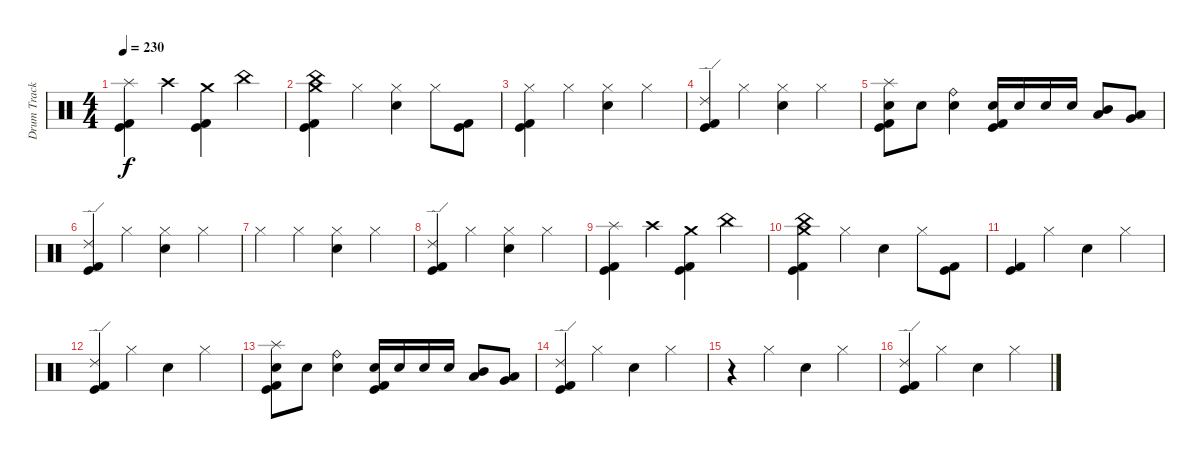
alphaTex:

\track ("Drum Track" "Drum Track") {instrument percussion}
\staff {score}
\articulation defaults
\ts (4 4)
\tempo 230
\clef neutral
\ks c
("Splash (hit)" "Kick (hit) 2" "Kick (hit)").4{dy f} "Crash high (hit)".4 ("Crash medium (hit)" "Kick (hit) 2" "Kick (hit)").4 "China (hit)".4 |
("China (hit)" "Crash medium (hit)" "Kick (hit) 2" "Kick (hit)").4 "Hi-Hat (closed)".4 ("Hi-Hat (closed)" "Electric Snare (hit)").4 "Hi-Hat (closed)".8 ("Kick (hit) 2" "Kick (hit)").8 |
("Hi-Hat (closed)" "Kick (hit) 2" "Kick (hit)").4 "Hi-Hat (closed)".4 ("Hi-Hat (closed)" "Electric Snare (hit)").4 "Hi-Hat (closed)".4 |
("Ride (edge) 2" "Kick (hit) 2" "Kick (hit)").4 "Hi-Hat (closed)".4 ("Hi-Hat (closed)" "Electric Snare (hit)").4 "Hi-Hat (closed)".4 |
("Splash (hit)" "Electric Snare (hit)" "Kick (hit) 2" "Kick (hit)").8 "Electric Snare (hit)".8 ("Ride (bell)" "Electric Snare (hit)").4 ("Electric Snare (hit)" "Kick (hit) 2" "Kick (hit)").16 "Electric Snare (hit)".16 "Electric Snare (hit)".16 "Electric Snare (hit)".16 ("Mid Tom (hit)" "Low Tom (hit)").8 ("Low Tom (hit)" "Very Low Tom (hit)").8 |
("Ride (edge) 2" "Kick (hit) 2" "Kick (hit)").4 "Hi-Hat (closed)".4 ("Hi-Hat (closed)" "Electric Snare (hit)").4 "Hi-Hat (closed)".4 |
"Hi-Hat (closed)".4 "Hi-Hat (closed)".4 ("Hi-Hat (closed)" "Electric Snare (hit)").4 "Hi-Hat (closed)".4 |
("Ride (edge) 2" "Kick (hit) 2" "Kick (hit)").4 "Hi-Hat (closed)".4 ("Hi-Hat (closed)" "Electric Snare (hit)").4 "Hi-Hat (closed)".4 |
("Splash (hit)" "Kick (hit) 2" "Kick (hit)").4 "Crash high (hit)".4 ("Crash medium (hit)" "Kick (hit) 2" "Kick (hit)").4 "China (hit)".4 |
("China (hit)" "Crash medium (hit)" "Kick (hit) 2" "Kick (hit)").4 "Hi-Hat (closed)".4 "Electric Snare (hit)".4 "Hi-Hat (closed)".8 ("Kick (hit) 2" "Kick (hit)").8 |
("Kick (hit) 2" "Kick (hit)").4 "Hi-Hat (closed)".4 "Electric Snare (hit)".4 "Hi-Hat (closed)".4 |
("Ride (edge) 2" "Kick (hit) 2" "Kick (hit)").4 "Hi-Hat (closed)".4 "Electric Snare (hit)".4 "Hi-Hat (closed)".4 |
("Splash (hit)" "Electric Snare (hit)" "Kick (hit) 2" "Kick (hit)").8 "Electric Snare (hit)".8 ("Ride (bell)" "Electric Snare (hit)").4 ("Electric Snare (hit)" "Kick (hit) 2" "Kick (hit)").16 "Electric Snare (hit)".16 "Electric Snare (hit)".16 "Electric Snare (hit)".16 ("Mid Tom (hit)" "Low Tom (hit)").8 ("Low Tom (hit)" "Very Low Tom (hit)").8 |
("Ride (edge) 2" "Kick (hit) 2" "Kick (hit)").4 "Hi-Hat (closed)".4 "Electric Snare (hit)".4 "Hi-Hat (closed)".4 |
r.4 "Hi-Hat (closed)".4 "Electric Snare (hit)".4 "Hi-Hat (closed)".4 |
("Ride (edge) 2" "Kick (hit) 2" "Kick (hit)").4 "Hi-Hat (closed)".4 "Electric Snare (hit)".4 "Hi-Hat (closed)".4
